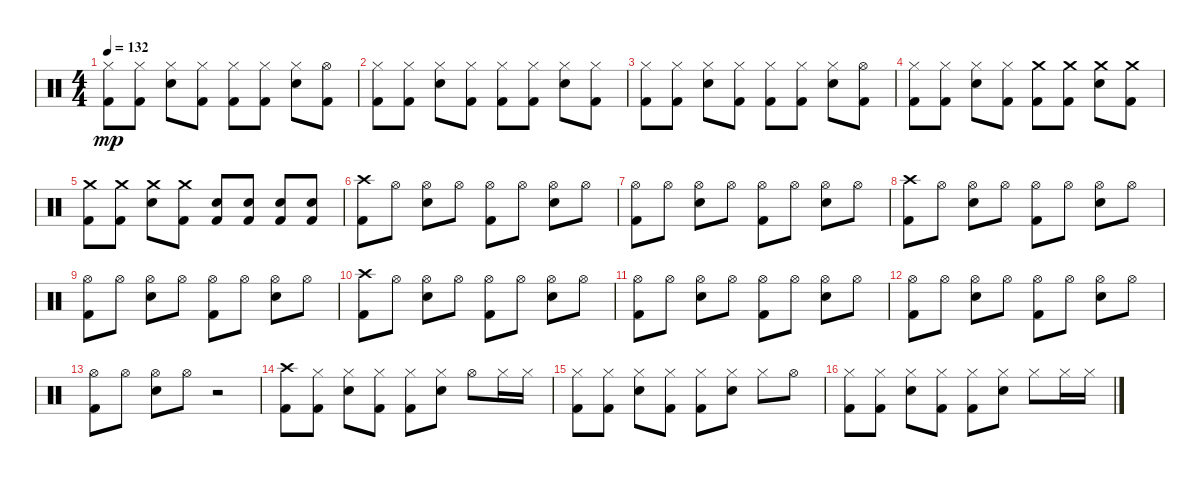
\track "" {instrument percussion}
\staff {score}
\articulation defaults
\ts (4 4)
\tempo 132
\clef neutral
\ks c
("Hi-Hat (closed)" "Kick (hit) 2").8{dy mp} ("Hi-Hat (closed)" "Kick (hit) 2").8 ("Snare (hit) 2" "Hi-Hat (closed)").8 ("Hi-Hat (closed)" "Kick (hit) 2").8 ("Hi-Hat (closed)" "Kick (hit) 2").8 ("Hi-Hat (closed)" "Kick (hit) 2").8 ("Snare (hit) 2" "Hi-Hat (closed)").8 ("Hi-Hat (open)" "Kick (hit) 2").8 |
("Hi-Hat (closed)" "Kick (hit) 2").8 ("Hi-Hat (closed)" "Kick (hit) 2").8 ("Snare (hit) 2" "Hi-Hat (closed)").8 ("Hi-Hat (closed)" "Kick (hit) 2").8 ("Hi-Hat (closed)" "Kick (hit) 2").8 ("Hi-Hat (closed)" "Kick (hit) 2").8 ("Snare (hit) 2" "Hi-Hat (closed)").8 ("Hi-Hat (closed)" "Kick (hit) 2").8 |
("Hi-Hat (closed)" "Kick (hit) 2").8 ("Hi-Hat (closed)" "Kick (hit) 2").8 ("Snare (hit) 2" "Hi-Hat (closed)").8 ("Hi-Hat (closed)" "Kick (hit) 2").8 ("Hi-Hat (closed)" "Kick (hit) 2").8 ("Hi-Hat (closed)" "Kick (hit) 2").8 ("Snare (hit) 2" "Hi-Hat (closed)").8 ("Hi-Hat (open)" "Kick (hit) 2").8 |
("Hi-Hat (closed)" "Kick (hit) 2").8 ("Hi-Hat (closed)" "Kick (hit) 2").8 ("Snare (hit) 2" "Hi-Hat (closed)").8 ("Hi-Hat (closed)" "Kick (hit) 2").8 ("Crash medium (hit)" "Kick (hit) 2").8 ("Crash medium (hit)" "Kick (hit) 2").8 ("Snare (hit) 2" "Crash medium (hit)").8 ("Crash medium (hit)" "Kick (hit) 2").8 |
("Crash medium (hit)" "Kick (hit) 2").8 ("Crash medium (hit)" "Kick (hit) 2").8 ("Snare (hit) 2" "Crash medium (hit)").8 ("Crash medium (hit)" "Kick (hit) 2").8 ("Snare (hit) 2" "Kick (hit) 2").8 ("Snare (hit) 2" "Kick (hit) 2").8 ("Snare (hit) 2" "Kick (hit) 2").8 ("Snare (hit) 2" "Kick (hit) 2").8 |
("Crash high (hit)" "Kick (hit) 2").8 "Hi-Hat (open)".8 ("Snare (hit) 2" "Hi-Hat (open)").8 "Hi-Hat (open)".8 ("Hi-Hat (open)" "Kick (hit) 2").8 "Hi-Hat (open)".8 ("Snare (hit) 2" "Hi-Hat (open)").8 "Hi-Hat (open)".8 |
("Hi-Hat (open)" "Kick (hit) 2").8 "Hi-Hat (open)".8 ("Snare (hit) 2" "Hi-Hat (open)").8 "Hi-Hat (open)".8 ("Hi-Hat (open)" "Kick (hit) 2").8 "Hi-Hat (open)".8 ("Snare (hit) 2" "Hi-Hat (open)").8 "Hi-Hat (open)".8 |
("Crash high (hit)" "Kick (hit) 2").8 "Hi-Hat (open)".8 ("Snare (hit) 2" "Hi-Hat (open)").8 "Hi-Hat (open)".8 ("Hi-Hat (open)" "Kick (hit) 2").8 "Hi-Hat (open)".8 ("Snare (hit) 2" "Hi-Hat (open)").8 "Hi-Hat (open)".8 |
("Hi-Hat (open)" "Kick (hit) 2").8 "Hi-Hat (open)".8 ("Snare (hit) 2" "Hi-Hat (open)").8 "Hi-Hat (open)".8 ("Hi-Hat (open)" "Kick (hit) 2").8 "Hi-Hat (open)".8 ("Snare (hit) 2" "Hi-Hat (open)").8 "Hi-Hat (open)".8 |
("Crash high (hit)" "Kick (hit) 2").8 "Hi-Hat (open)".8 ("Snare (hit) 2" "Hi-Hat (open)").8 "Hi-Hat (open)".8 ("Hi-Hat (open)" "Kick (hit) 2").8 "Hi-Hat (open)".8 ("Snare (hit) 2" "Hi-Hat (open)").8 "Hi-Hat (open)".8 |
("Hi-Hat (open)" "Kick (hit) 2").8 "Hi-Hat (open)".8 ("Snare (hit) 2" "Hi-Hat (open)").8 "Hi-Hat (open)".8 ("Hi-Hat (open)" "Kick (hit) 2").8 "Hi-Hat (open)".8 ("Snare (hit) 2" "Hi-Hat (open)").8 "Hi-Hat (open)".8 |
("Hi-Hat (open)" "Kick (hit) 2").8 "Hi-Hat (open)".8 ("Snare (hit) 2" "Hi-Hat (open)").8 "Hi-Hat (open)".8 ("Hi-Hat (open)" "Kick (hit) 2").8 "Hi-Hat (open)".8 ("Snare (hit) 2" "Hi-Hat (open)").8 "Hi-Hat (open)".8 |
("Hi-Hat (open)" "Kick (hit) 2").8 "Hi-Hat (open)".8 ("Snare (hit) 2" "Hi-Hat (open)").8 "Hi-Hat (open)".8 r.2 |
("Crash high (hit)" "Kick (hit) 2").8 ("Hi-Hat (closed)" "Kick (hit) 2").8 ("Snare (hit) 2" "Hi-Hat (closed)").8 ("Hi-Hat (closed)" "Kick (hit) 2").8 ("Hi-Hat (closed)" "Kick (hit) 2").8 ("Snare (hit) 2" "Hi-Hat (closed)").8 "Hi-Hat (open)".8 "Hi-Hat (closed)".16 "Hi-Hat (closed)".16 |
("Hi-Hat (closed)" "Kick (hit) 2").8 ("Hi-Hat (closed)" "Kick (hit) 2").8 ("Snare (hit) 2" "Hi-Hat (closed)").8 ("Hi-Hat (closed)" "Kick (hit) 2").8 ("Hi-Hat (closed)" "Kick (hit) 2").8 ("Snare (hit) 2" "Hi-Hat (closed)").8 "Hi-Hat (closed)".8 "Hi-Hat (open)".8 |
("Hi-Hat (closed)" "Kick (hit) 2").8 ("Hi-Hat (closed)" "Kick (hit) 2").8 ("Snare (hit) 2" "Hi-Hat (closed)").8 ("Hi-Hat (closed)" "Kick (hit) 2").8 ("Hi-Hat (closed)" "Kick (hit) 2").8 ("Snare (hit) 2" "Hi-Hat (closed)").8 "Hi-Hat (closed)".8 "Hi-Hat (closed)".16 "Hi-Hat (closed)".16
